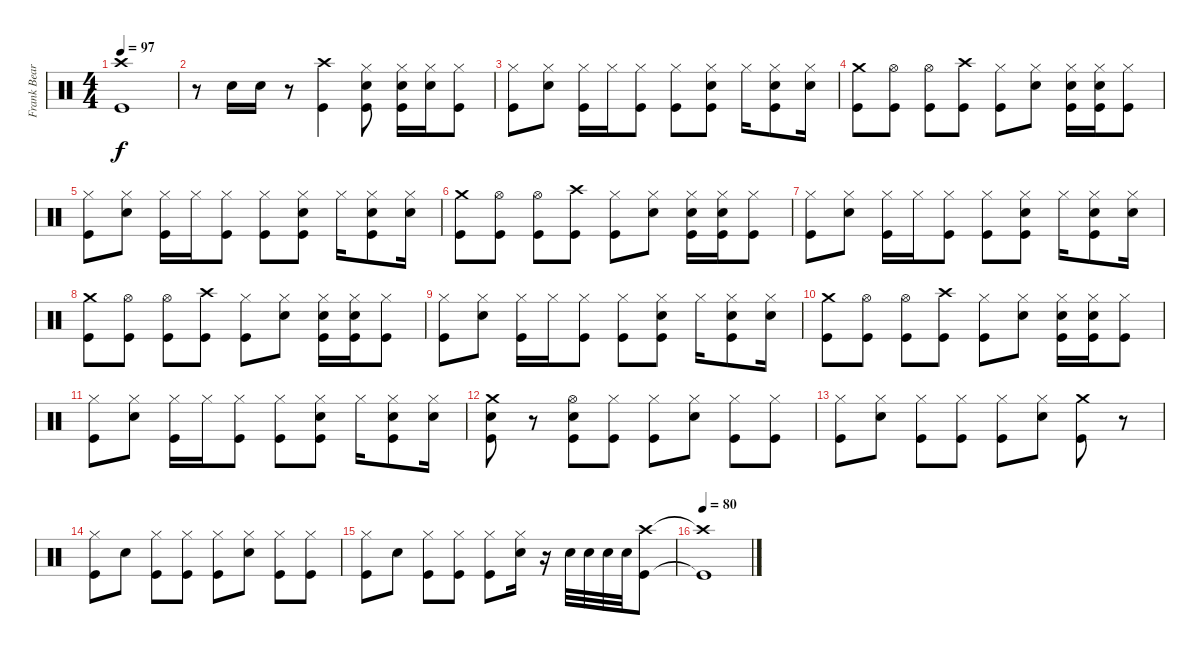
\track ("Frank Beard Drums" "Frank Bear") {instrument percussion}
\staff {score}
\articulation defaults
\ts (4 4)
\tempo 97
\clef neutral
\ks c
("Crash high (hit)"{t} "Kick (hit)"{t}).1{dy f} |
r.8 "Snare (hit) 2".16 "Snare (hit) 2".16 r.8 ("Crash high (hit)" "Kick (hit)").4 ("Hi-Hat (closed)" "Snare (hit) 2" "Kick (hit)").8 ("Hi-Hat (closed)" "Snare (hit) 2" "Kick (hit)").16 ("Hi-Hat (closed)" "Snare (hit) 2").16 ("Hi-Hat (closed)" "Kick (hit)").8 |
("Hi-Hat (closed)" "Kick (hit)").8 ("Hi-Hat (closed)" "Snare (hit) 2").8 ("Hi-Hat (closed)" "Kick (hit)").16 "Hi-Hat (closed)".16 ("Hi-Hat (closed)" "Kick (hit)").8 ("Hi-Hat (closed)" "Kick (hit)").8 ("Hi-Hat (closed)" "Snare (hit) 2" "Kick (hit)").8 "Hi-Hat (closed)".16 ("Hi-Hat (closed)" "Snare (hit) 2" "Kick (hit)").8 ("Hi-Hat (closed)" "Snare (hit) 2").16 |
("Crash medium (hit)" "Kick (hit)").8 ("Hi-Hat (open)" "Kick (hit)").8 ("Hi-Hat (open)" "Kick (hit)").8 ("Crash high (hit)" "Kick (hit)").8 ("Hi-Hat (closed)" "Kick (hit)").8 ("Hi-Hat (closed)" "Snare (hit) 2").8 ("Hi-Hat (closed)" "Snare (hit) 2" "Kick (hit)").16 ("Hi-Hat (closed)" "Snare (hit) 2" "Kick (hit)").16 ("Hi-Hat (closed)" "Kick (hit)").8 |
("Hi-Hat (closed)" "Kick (hit)").8 ("Hi-Hat (closed)" "Snare (hit) 2").8 ("Hi-Hat (closed)" "Kick (hit)").16 "Hi-Hat (closed)".16 ("Hi-Hat (closed)" "Kick (hit)").8 ("Hi-Hat (closed)" "Kick (hit)").8 ("Hi-Hat (closed)" "Snare (hit) 2" "Kick (hit)").8 "Hi-Hat (closed)".16 ("Hi-Hat (closed)" "Snare (hit) 2" "Kick (hit)").8 ("Hi-Hat (closed)" "Snare (hit) 2").16 |
("Crash medium (hit)" "Kick (hit)").8 ("Hi-Hat (open)" "Kick (hit)").8 ("Hi-Hat (open)" "Kick (hit)").8 ("Crash high (hit)" "Kick (hit)").8 ("Hi-Hat (closed)" "Kick (hit)").8 ("Hi-Hat (closed)" "Snare (hit) 2").8 ("Hi-Hat (closed)" "Snare (hit) 2" "Kick (hit)").16 ("Hi-Hat (closed)" "Snare (hit) 2" "Kick (hit)").16 ("Hi-Hat (closed)" "Kick (hit)").8 |
("Hi-Hat (closed)" "Kick (hit)").8 ("Hi-Hat (closed)" "Snare (hit) 2").8 ("Hi-Hat (closed)" "Kick (hit)").16 "Hi-Hat (closed)".16 ("Hi-Hat (closed)" "Kick (hit)").8 ("Hi-Hat (closed)" "Kick (hit)").8 ("Hi-Hat (closed)" "Snare (hit) 2" "Kick (hit)").8 "Hi-Hat (closed)".16 ("Hi-Hat (closed)" "Snare (hit) 2" "Kick (hit)").8 ("Hi-Hat (closed)" "Snare (hit) 2").16 |
("Crash medium (hit)" "Kick (hit)").8 ("Hi-Hat (open)" "Kick (hit)").8 ("Hi-Hat (open)" "Kick (hit)").8 ("Crash high (hit)" "Kick (hit)").8 ("Hi-Hat (closed)" "Kick (hit)").8 ("Hi-Hat (closed)" "Snare (hit) 2").8 ("Hi-Hat (closed)" "Snare (hit) 2" "Kick (hit)").16 ("Hi-Hat (closed)" "Snare (hit) 2" "Kick (hit)").16 ("Hi-Hat (closed)" "Kick (hit)").8 |
("Hi-Hat (closed)" "Kick (hit)").8 ("Hi-Hat (closed)" "Snare (hit) 2").8 ("Hi-Hat (closed)" "Kick (hit)").16 "Hi-Hat (closed)".16 ("Hi-Hat (closed)" "Kick (hit)").8 ("Hi-Hat (closed)" "Kick (hit)").8 ("Hi-Hat (closed)" "Snare (hit) 2" "Kick (hit)").8 "Hi-Hat (closed)".16 ("Hi-Hat (closed)" "Snare (hit) 2" "Kick (hit)").8 ("Hi-Hat (closed)" "Snare (hit) 2").16 |
("Crash medium (hit)" "Kick (hit)").8 ("Hi-Hat (open)" "Kick (hit)").8 ("Hi-Hat (open)" "Kick (hit)").8 ("Crash high (hit)" "Kick (hit)").8 ("Hi-Hat (closed)" "Kick (hit)").8 ("Hi-Hat (closed)" "Snare (hit) 2").8 ("Hi-Hat (closed)" "Snare (hit) 2" "Kick (hit)").16 ("Hi-Hat (closed)" "Snare (hit) 2" "Kick (hit)").16 ("Hi-Hat (closed)" "Kick (hit)").8 |
("Hi-Hat (closed)" "Kick (hit)").8 ("Hi-Hat (closed)" "Snare (hit) 2").8 ("Hi-Hat (closed)" "Kick (hit)").16 "Hi-Hat (closed)".16 ("Hi-Hat (closed)" "Kick (hit)").8 ("Hi-Hat (closed)" "Kick (hit)").8 ("Hi-Hat (closed)" "Snare (hit) 2" "Kick (hit)").8 "Hi-Hat (closed)".16 ("Hi-Hat (closed)" "Snare (hit) 2" "Kick (hit)").8 ("Hi-Hat (closed)" "Snare (hit) 2").16 |
("Crash medium (hit)" "Snare (hit) 2" "Kick (hit)").8 r.8 ("Hi-Hat (open)" "Snare (hit) 2" "Kick (hit)").8 ("Hi-Hat (closed)" "Kick (hit)").8 ("Hi-Hat (closed)" "Kick (hit)").8 ("Hi-Hat (closed)" "Snare (hit) 2").8 ("Hi-Hat (closed)" "Kick (hit)").8 ("Hi-Hat (closed)" "Kick (hit)").8 |
("Hi-Hat (closed)" "Kick (hit)").8 ("Hi-Hat (closed)" "Snare (hit) 2").8 ("Hi-Hat (closed)" "Kick (hit)").8 ("Hi-Hat (closed)" "Kick (hit)").8 ("Hi-Hat (closed)" "Kick (hit)").8 ("Hi-Hat (closed)" "Snare (hit) 2").8 ("Crash medium (hit)" "Kick (hit)").8 r.8 |
("Hi-Hat (closed)" "Kick (hit)").8 "Snare (hit) 2".8 ("Hi-Hat (closed)" "Kick (hit)").8 ("Hi-Hat (closed)" "Kick (hit)").8 ("Hi-Hat (closed)" "Kick (hit)").8 ("Hi-Hat (closed)" "Snare (hit) 2").8 ("Hi-Hat (closed)" "Kick (hit)").8 ("Hi-Hat (closed)" "Kick (hit)").8 |
("Hi-Hat (closed)" "Kick (hit)").8 "Snare (hit) 2".8 ("Hi-Hat (closed)" "Kick (hit)").8 ("Hi-Hat (closed)" "Kick (hit)").8 ("Hi-Hat (closed)" "Kick (hit)").8 ("Hi-Hat (closed)" "Snare (hit) 2").16 r.16 "Snare (hit) 2".32 "Snare (hit) 2".32 "Snare (hit) 2".32 "Snare (hit) 2".32 ("Crash high (hit)" "Kick (hit)").8 |
\tempo 80
("Crash high (hit)"{t} "Kick (hit)"{t}).1
